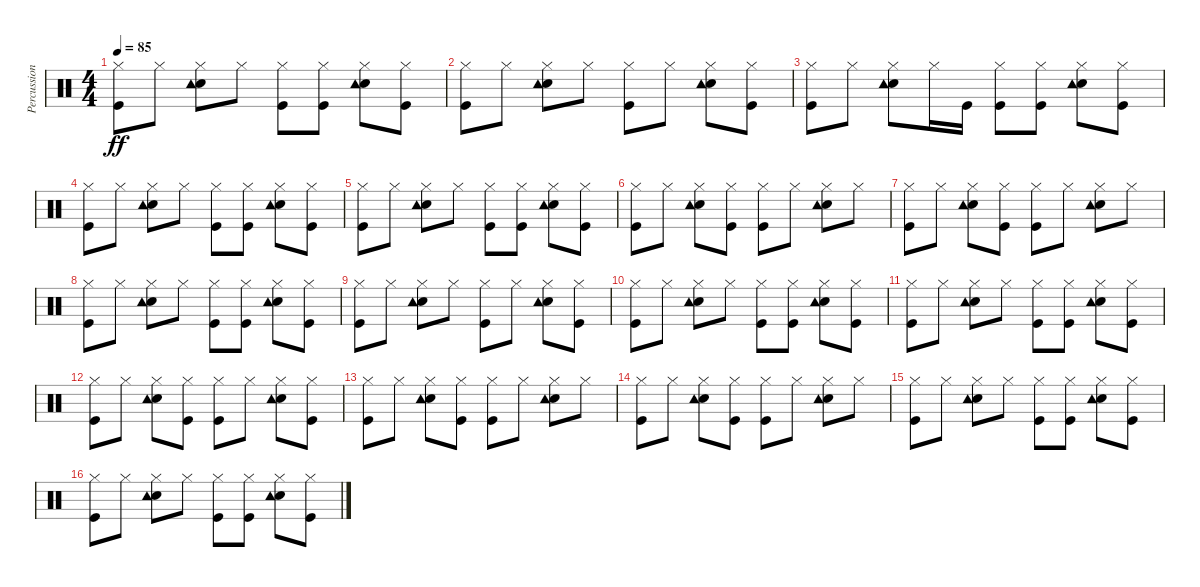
\track ("Percussion" "Percussion") {instrument percussion}
\staff {score}
\articulation defaults
\ts (4 4)
\tempo 85
\clef neutral
\ks c
("Kick (hit)" "Hi-Hat (closed)").8{dy ff} "Hi-Hat (closed)".8 ("Snare (hit) 2" "Hi-Hat (closed)" "Tambourine (hit)").8 "Hi-Hat (closed)".8 ("Kick (hit)" "Hi-Hat (closed)").8 ("Kick (hit)" "Hi-Hat (closed)").8 ("Snare (hit) 2" "Hi-Hat (closed)" "Tambourine (hit)").8 ("Kick (hit)" "Hi-Hat (closed)").8 |
("Kick (hit)" "Hi-Hat (closed)").8 "Hi-Hat (closed)".8 ("Snare (hit) 2" "Hi-Hat (closed)" "Tambourine (hit)").8 "Hi-Hat (closed)".8 ("Kick (hit)" "Hi-Hat (closed)").8 "Hi-Hat (closed)".8 ("Snare (hit) 2" "Hi-Hat (closed)" "Tambourine (hit)").8 ("Kick (hit)" "Hi-Hat (closed)").8 |
("Kick (hit)" "Hi-Hat (closed)").8 "Hi-Hat (closed)".8 ("Snare (hit) 2" "Hi-Hat (closed)" "Tambourine (hit)").8 "Hi-Hat (closed)".16 "Kick (hit)".16 ("Kick (hit)" "Hi-Hat (closed)").8 ("Kick (hit)" "Hi-Hat (closed)").8 ("Snare (hit) 2" "Hi-Hat (closed)" "Tambourine (hit)").8 ("Kick (hit)" "Hi-Hat (closed)").8 |
("Kick (hit)" "Hi-Hat (closed)").8 "Hi-Hat (closed)".8 ("Snare (hit) 2" "Hi-Hat (closed)" "Tambourine (hit)").8 "Hi-Hat (closed)".8 ("Kick (hit)" "Hi-Hat (closed)").8 ("Kick (hit)" "Hi-Hat (closed)").8 ("Snare (hit) 2" "Hi-Hat (closed)" "Tambourine (hit)").8 ("Kick (hit)" "Hi-Hat (closed)").8 |
("Kick (hit)" "Hi-Hat (closed)").8 "Hi-Hat (closed)".8 ("Snare (hit) 2" "Hi-Hat (closed)" "Tambourine (hit)").8 "Hi-Hat (closed)".8 ("Kick (hit)" "Hi-Hat (closed)").8 ("Kick (hit)" "Hi-Hat (closed)").8 ("Snare (hit) 2" "Hi-Hat (closed)" "Tambourine (hit)").8 ("Kick (hit)" "Hi-Hat (closed)").8 |
("Kick (hit)" "Hi-Hat (closed)").8 "Hi-Hat (closed)".8 ("Snare (hit) 2" "Hi-Hat (closed)" "Tambourine (hit)").8 ("Kick (hit)" "Hi-Hat (closed)").8 ("Kick (hit)" "Hi-Hat (closed)").8 "Hi-Hat (closed)".8 ("Snare (hit) 2" "Hi-Hat (closed)" "Tambourine (hit)").8 "Hi-Hat (closed)".8 |
("Kick (hit)" "Hi-Hat (closed)").8 "Hi-Hat (closed)".8 ("Snare (hit) 2" "Hi-Hat (closed)" "Tambourine (hit)").8 ("Kick (hit)" "Hi-Hat (closed)").8 ("Kick (hit)" "Hi-Hat (closed)").8 "Hi-Hat (closed)".8 ("Snare (hit) 2" "Hi-Hat (closed)" "Tambourine (hit)").8 "Hi-Hat (closed)".8 |
("Kick (hit)" "Hi-Hat (closed)").8 "Hi-Hat (closed)".8 ("Snare (hit) 2" "Hi-Hat (closed)" "Tambourine (hit)").8 "Hi-Hat (closed)".8 ("Kick (hit)" "Hi-Hat (closed)").8 ("Kick (hit)" "Hi-Hat (closed)").8 ("Snare (hit) 2" "Hi-Hat (closed)" "Tambourine (hit)").8 ("Kick (hit)" "Hi-Hat (closed)").8 |
("Kick (hit)" "Hi-Hat (closed)").8 "Hi-Hat (closed)".8 ("Snare (hit) 2" "Hi-Hat (closed)" "Tambourine (hit)").8 "Hi-Hat (closed)".8 ("Kick (hit)" "Hi-Hat (closed)").8 "Hi-Hat (closed)".8 ("Snare (hit) 2" "Hi-Hat (closed)" "Tambourine (hit)").8 ("Kick (hit)" "Hi-Hat (closed)").8 |
("Kick (hit)" "Hi-Hat (closed)").8 "Hi-Hat (closed)".8 ("Snare (hit) 2" "Hi-Hat (closed)" "Tambourine (hit)").8 "Hi-Hat (closed)".8 ("Kick (hit)" "Hi-Hat (closed)").8 ("Kick (hit)" "Hi-Hat (closed)").8 ("Snare (hit) 2" "Hi-Hat (closed)" "Tambourine (hit)").8 ("Kick (hit)" "Hi-Hat (closed)").8 |
("Kick (hit)" "Hi-Hat (closed)").8 "Hi-Hat (closed)".8 ("Snare (hit) 2" "Hi-Hat (closed)" "Tambourine (hit)").8 "Hi-Hat (closed)".8 ("Kick (hit)" "Hi-Hat (closed)").8 ("Kick (hit)" "Hi-Hat (closed)").8 ("Snare (hit) 2" "Hi-Hat (closed)" "Tambourine (hit)").8 ("Kick (hit)" "Hi-Hat (closed)").8 |
("Kick (hit)" "Hi-Hat (closed)").8 "Hi-Hat (closed)".8 ("Snare (hit) 2" "Hi-Hat (closed)" "Tambourine (hit)").8 ("Kick (hit)" "Hi-Hat (closed)").8 ("Kick (hit)" "Hi-Hat (closed)").8 "Hi-Hat (closed)".8 ("Snare (hit) 2" "Hi-Hat (closed)" "Tambourine (hit)").8 ("Kick (hit)" "Hi-Hat (closed)").8 |
("Kick (hit)" "Hi-Hat (closed)").8 "Hi-Hat (closed)".8 ("Snare (hit) 2" "Hi-Hat (closed)" "Tambourine (hit)").8 ("Kick (hit)" "Hi-Hat (closed)").8 ("Kick (hit)" "Hi-Hat (closed)").8 "Hi-Hat (closed)".8 ("Snare (hit) 2" "Hi-Hat (closed)" "Tambourine (hit)").8 "Hi-Hat (closed)".8 |
("Kick (hit)" "Hi-Hat (closed)").8 "Hi-Hat (closed)".8 ("Snare (hit) 2" "Hi-Hat (closed)" "Tambourine (hit)").8 ("Kick (hit)" "Hi-Hat (closed)").8 ("Kick (hit)" "Hi-Hat (closed)").8 "Hi-Hat (closed)".8 ("Snare (hit) 2" "Hi-Hat (closed)" "Tambourine (hit)").8 "Hi-Hat (closed)".8 |
("Kick (hit)" "Hi-Hat (closed)").8 "Hi-Hat (closed)".8 ("Snare (hit) 2" "Hi-Hat (closed)" "Tambourine (hit)").8 "Hi-Hat (closed)".8 ("Kick (hit)" "Hi-Hat (closed)").8 ("Kick (hit)" "Hi-Hat (closed)").8 ("Snare (hit) 2" "Hi-Hat (closed)" "Tambourine (hit)").8 ("Kick (hit)" "Hi-Hat (closed)").8 |
("Kick (hit)" "Hi-Hat (closed)").8 "Hi-Hat (closed)".8 ("Snare (hit) 2" "Hi-Hat (closed)" "Tambourine (hit)").8 "Hi-Hat (closed)".8 ("Kick (hit)" "Hi-Hat (closed)").8 ("Kick (hit)" "Hi-Hat (closed)").8 ("Snare (hit) 2" "Hi-Hat (closed)" "Tambourine (hit)").8 ("Kick (hit)" "Hi-Hat (closed)").8
